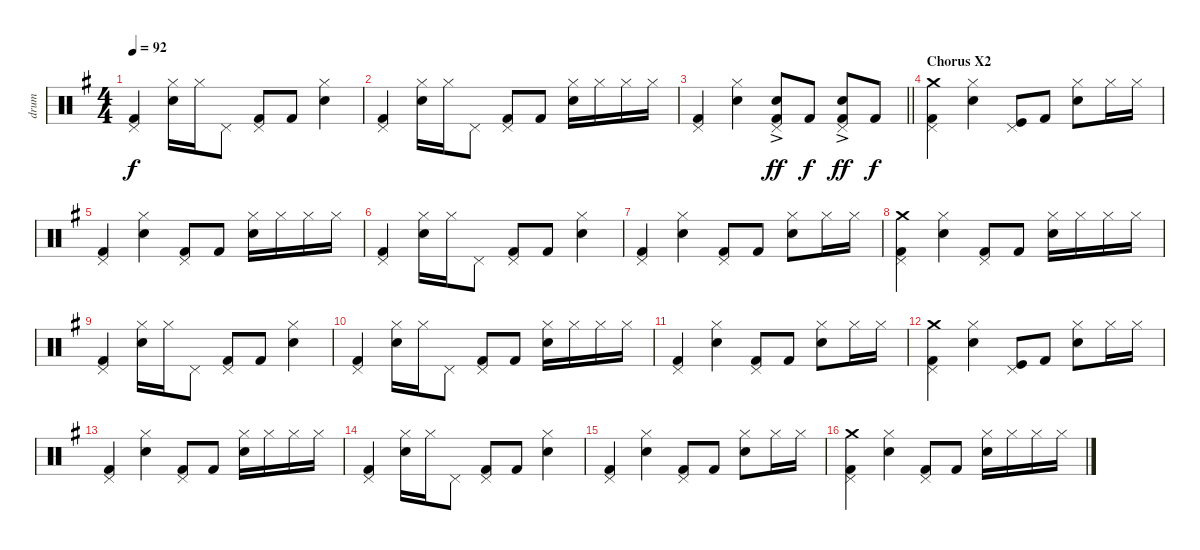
\track ("drum" "drum") {instrument percussion}
\staff {score}
\articulation defaults
\ts (4 4)
\tempo 92
\clef neutral
\ks g
("Kick (hit) 2" "Pedal Hi-Hat (hit)").4{dy f} ("Snare (hit) 2" "Hi-Hat (closed)").16 "Hi-Hat (closed)".16 "Pedal Hi-Hat (hit)".8 ("Kick (hit) 2" "Pedal Hi-Hat (hit)").8 "Kick (hit) 2".8 ("Snare (hit) 2" "Hi-Hat (closed)").4 |
("Kick (hit) 2" "Pedal Hi-Hat (hit)").4 ("Snare (hit) 2" "Hi-Hat (closed)").16 "Hi-Hat (closed)".16 "Pedal Hi-Hat (hit)".8 ("Kick (hit) 2" "Pedal Hi-Hat (hit)").8 "Kick (hit) 2".8 ("Snare (hit) 2" "Hi-Hat (closed)").16 "Hi-Hat (closed)".16 "Hi-Hat (closed)".16 "Hi-Hat (closed)".16 |
\barLineRight lightlight
("Kick (hit) 2" "Pedal Hi-Hat (hit)").4 ("Snare (hit) 2" "Hi-Hat (closed)").4 ("Snare (hit) 2"{ac} "Kick (hit) 2"{ac} "Pedal Hi-Hat (hit)"{ac}).8{dy ff} "Kick (hit) 2".8{dy f} ("Snare (hit) 2"{ac} "Kick (hit) 2"{ac} "Pedal Hi-Hat (hit)"{ac}).8{dy ff} "Kick (hit) 2".8{dy f} |
\section ("" "Chorus X2")
("Kick (hit) 2" "Pedal Hi-Hat (hit)" "Crash medium (hit)").4 ("Snare (hit) 2" "Hi-Hat (closed)").4 ("Kick (hit)" "Pedal Hi-Hat (hit)").8 "Kick (hit) 2".8 ("Snare (hit) 2" "Hi-Hat (closed)").8 "Hi-Hat (closed)".16 "Hi-Hat (closed)".16 |
("Kick (hit) 2" "Pedal Hi-Hat (hit)").4 ("Snare (hit) 2" "Hi-Hat (closed)").4 ("Kick (hit) 2" "Pedal Hi-Hat (hit)").8 "Kick (hit) 2".8 ("Snare (hit) 2" "Hi-Hat (closed)").16 "Hi-Hat (closed)".16 "Hi-Hat (closed)".16 "Hi-Hat (closed)".16 |
("Kick (hit) 2" "Pedal Hi-Hat (hit)").4 ("Snare (hit) 2" "Hi-Hat (closed)").16 "Hi-Hat (closed)".16 "Pedal Hi-Hat (hit)".8 ("Kick (hit) 2" "Pedal Hi-Hat (hit)").8 "Kick (hit) 2".8 ("Snare (hit) 2" "Hi-Hat (closed)").4 |
("Kick (hit) 2" "Pedal Hi-Hat (hit)").4 ("Snare (hit) 2" "Hi-Hat (closed)").4 ("Kick (hit) 2" "Pedal Hi-Hat (hit)").8 "Kick (hit) 2".8 ("Snare (hit) 2" "Hi-Hat (closed)").8 "Hi-Hat (closed)".16 "Hi-Hat (closed)".16 |
("Kick (hit) 2" "Pedal Hi-Hat (hit)" "Crash medium (hit)").4 ("Snare (hit) 2" "Hi-Hat (closed)").4 ("Kick (hit) 2" "Pedal Hi-Hat (hit)").8 "Kick (hit) 2".8 ("Snare (hit) 2" "Hi-Hat (closed)").16 "Hi-Hat (closed)".16 "Hi-Hat (closed)".16 "Hi-Hat (closed)".16 |
("Kick (hit) 2" "Pedal Hi-Hat (hit)").4 ("Snare (hit) 2" "Hi-Hat (closed)").16 "Hi-Hat (closed)".16 "Pedal Hi-Hat (hit)".8 ("Kick (hit) 2" "Pedal Hi-Hat (hit)").8 "Kick (hit) 2".8 ("Snare (hit) 2" "Hi-Hat (closed)").4 |
("Kick (hit) 2" "Pedal Hi-Hat (hit)").4 ("Snare (hit) 2" "Hi-Hat (closed)").16 "Hi-Hat (closed)".16 "Pedal Hi-Hat (hit)".8 ("Kick (hit) 2" "Pedal Hi-Hat (hit)").8 "Kick (hit) 2".8 ("Snare (hit) 2" "Hi-Hat (closed)").16 "Hi-Hat (closed)".16 "Hi-Hat (closed)".16 "Hi-Hat (closed)".16 |
("Kick (hit) 2" "Pedal Hi-Hat (hit)").4 ("Snare (hit) 2" "Hi-Hat (closed)").4 ("Kick (hit) 2" "Pedal Hi-Hat (hit)").8 "Kick (hit) 2".8 ("Snare (hit) 2" "Hi-Hat (closed)").8 "Hi-Hat (closed)".16 "Hi-Hat (closed)".16 |
("Kick (hit) 2" "Pedal Hi-Hat (hit)" "Crash medium (hit)").4 ("Snare (hit) 2" "Hi-Hat (closed)").4 ("Kick (hit)" "Pedal Hi-Hat (hit)").8 "Kick (hit) 2".8 ("Snare (hit) 2" "Hi-Hat (closed)").8 "Hi-Hat (closed)".16 "Hi-Hat (closed)".16 |
("Kick (hit) 2" "Pedal Hi-Hat (hit)").4 ("Snare (hit) 2" "Hi-Hat (closed)").4 ("Kick (hit) 2" "Pedal Hi-Hat (hit)").8 "Kick (hit) 2".8 ("Snare (hit) 2" "Hi-Hat (closed)").16 "Hi-Hat (closed)".16 "Hi-Hat (closed)".16 "Hi-Hat (closed)".16 |
("Kick (hit) 2" "Pedal Hi-Hat (hit)").4 ("Snare (hit) 2" "Hi-Hat (closed)").16 "Hi-Hat (closed)".16 "Pedal Hi-Hat (hit)".8 ("Kick (hit) 2" "Pedal Hi-Hat (hit)").8 "Kick (hit) 2".8 ("Snare (hit) 2" "Hi-Hat (closed)").4 |
("Kick (hit) 2" "Pedal Hi-Hat (hit)").4 ("Snare (hit) 2" "Hi-Hat (closed)").4 ("Kick (hit) 2" "Pedal Hi-Hat (hit)").8 "Kick (hit) 2".8 ("Snare (hit) 2" "Hi-Hat (closed)").8 "Hi-Hat (closed)".16 "Hi-Hat (closed)".16 |
("Kick (hit) 2" "Pedal Hi-Hat (hit)" "Crash medium (hit)").4 ("Snare (hit) 2" "Hi-Hat (closed)").4 ("Kick (hit) 2" "Pedal Hi-Hat (hit)").8 "Kick (hit) 2".8 ("Snare (hit) 2" "Hi-Hat (closed)").16 "Hi-Hat (closed)".16 "Hi-Hat (closed)".16 "Hi-Hat (closed)".16
